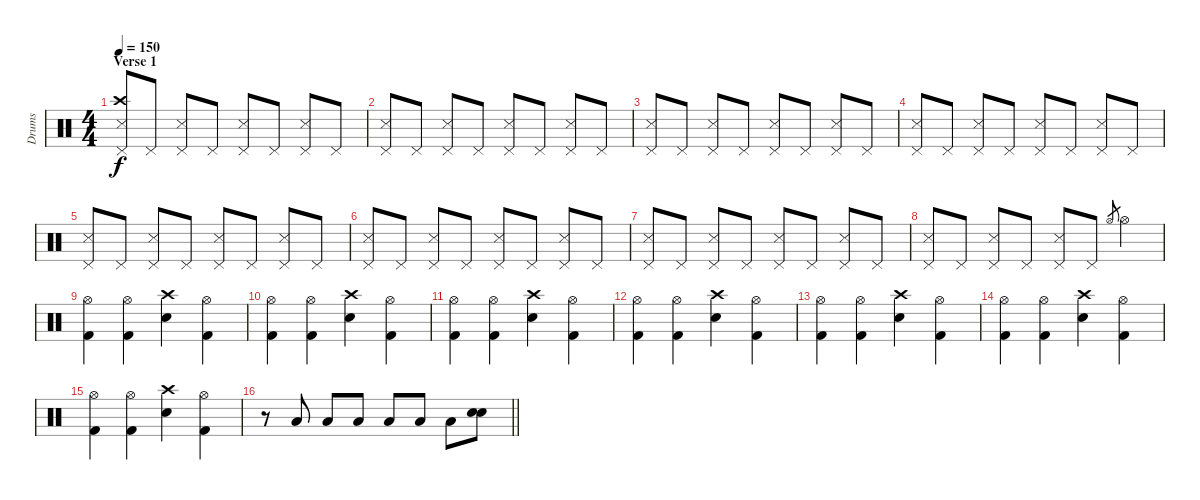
\track ("Drums" "Drums") {instrument percussion}
\staff {score}
\articulation defaults
\ts (4 4)
\section ("" "Verse 1")
\tempo 150
\clef neutral
\ks c
("Snare (side stick) 3" "Crash high (hit)" "Pedal Hi-Hat (hit)").8{dy f} "Pedal Hi-Hat (hit)".8 ("Snare (side stick) 3" "Pedal Hi-Hat (hit)").8 "Pedal Hi-Hat (hit)".8 ("Snare (side stick) 3" "Pedal Hi-Hat (hit)").8 "Pedal Hi-Hat (hit)".8 ("Snare (side stick) 3" "Pedal Hi-Hat (hit)").8 "Pedal Hi-Hat (hit)".8 |
("Snare (side stick) 3" "Pedal Hi-Hat (hit)").8 "Pedal Hi-Hat (hit)".8 ("Snare (side stick) 3" "Pedal Hi-Hat (hit)").8 "Pedal Hi-Hat (hit)".8 ("Snare (side stick) 3" "Pedal Hi-Hat (hit)").8 "Pedal Hi-Hat (hit)".8 ("Snare (side stick) 3" "Pedal Hi-Hat (hit)").8 "Pedal Hi-Hat (hit)".8 |
("Snare (side stick) 3" "Pedal Hi-Hat (hit)").8 "Pedal Hi-Hat (hit)".8 ("Snare (side stick) 3" "Pedal Hi-Hat (hit)").8 "Pedal Hi-Hat (hit)".8 ("Snare (side stick) 3" "Pedal Hi-Hat (hit)").8 "Pedal Hi-Hat (hit)".8 ("Snare (side stick) 3" "Pedal Hi-Hat (hit)").8 "Pedal Hi-Hat (hit)".8 |
("Snare (side stick) 3" "Pedal Hi-Hat (hit)").8 "Pedal Hi-Hat (hit)".8 ("Snare (side stick) 3" "Pedal Hi-Hat (hit)").8 "Pedal Hi-Hat (hit)".8 ("Snare (side stick) 3" "Pedal Hi-Hat (hit)").8 "Pedal Hi-Hat (hit)".8 ("Snare (side stick) 3" "Pedal Hi-Hat (hit)").8 "Pedal Hi-Hat (hit)".8 |
("Snare (side stick) 3" "Pedal Hi-Hat (hit)").8 "Pedal Hi-Hat (hit)".8 ("Snare (side stick) 3" "Pedal Hi-Hat (hit)").8 "Pedal Hi-Hat (hit)".8 ("Snare (side stick) 3" "Pedal Hi-Hat (hit)").8 "Pedal Hi-Hat (hit)".8 ("Snare (side stick) 3" "Pedal Hi-Hat (hit)").8 "Pedal Hi-Hat (hit)".8 |
("Snare (side stick) 3" "Pedal Hi-Hat (hit)").8 "Pedal Hi-Hat (hit)".8 ("Snare (side stick) 3" "Pedal Hi-Hat (hit)").8 "Pedal Hi-Hat (hit)".8 ("Snare (side stick) 3" "Pedal Hi-Hat (hit)").8 "Pedal Hi-Hat (hit)".8 ("Snare (side stick) 3" "Pedal Hi-Hat (hit)").8 "Pedal Hi-Hat (hit)".8 |
("Snare (side stick) 3" "Pedal Hi-Hat (hit)").8 "Pedal Hi-Hat (hit)".8 ("Snare (side stick) 3" "Pedal Hi-Hat (hit)").8 "Pedal Hi-Hat (hit)".8 ("Snare (side stick) 3" "Pedal Hi-Hat (hit)").8 "Pedal Hi-Hat (hit)".8 ("Snare (side stick) 3" "Pedal Hi-Hat (hit)").8 "Pedal Hi-Hat (hit)".8 |
("Snare (side stick) 3" "Pedal Hi-Hat (hit)").8 "Pedal Hi-Hat (hit)".8 ("Snare (side stick) 3" "Pedal Hi-Hat (hit)").8 "Pedal Hi-Hat (hit)".8 ("Snare (side stick) 3" "Pedal Hi-Hat (hit)").8 "Pedal Hi-Hat (hit)".8 "Hi-Hat (open)".8{gr} "Hi-Hat (open)".4 |
("Kick (hit) 2" "Hi-Hat (open)").4 ("Kick (hit) 2" "Hi-Hat (open)").4 ("Electric Snare (hit)" "Crash high (hit)").4 ("Kick (hit) 2" "Hi-Hat (open)").4 |
("Kick (hit) 2" "Hi-Hat (open)").4 ("Kick (hit) 2" "Hi-Hat (open)").4 ("Electric Snare (hit)" "Crash high (hit)").4 ("Kick (hit) 2" "Hi-Hat (open)").4 |
("Kick (hit) 2" "Hi-Hat (open)").4 ("Kick (hit) 2" "Hi-Hat (open)").4 ("Electric Snare (hit)" "Crash high (hit)").4 ("Kick (hit) 2" "Hi-Hat (open)").4 |
("Kick (hit) 2" "Hi-Hat (open)").4 ("Kick (hit) 2" "Hi-Hat (open)").4 ("Electric Snare (hit)" "Crash high (hit)").4 ("Kick (hit) 2" "Hi-Hat (open)").4 |
("Kick (hit) 2" "Hi-Hat (open)").4 ("Kick (hit) 2" "Hi-Hat (open)").4 ("Electric Snare (hit)" "Crash high (hit)").4 ("Kick (hit) 2" "Hi-Hat (open)").4 |
("Kick (hit) 2" "Hi-Hat (open)").4 ("Kick (hit) 2" "Hi-Hat (open)").4 ("Electric Snare (hit)" "Crash high (hit)").4 ("Kick (hit) 2" "Hi-Hat (open)").4 |
("Kick (hit) 2" "Hi-Hat (open)").4 ("Kick (hit) 2" "Hi-Hat (open)").4 ("Electric Snare (hit)" "Crash high (hit)").4 ("Kick (hit) 2" "Hi-Hat (open)").4 |
\barLineRight lightlight
r.8 "Low Floor Tom (hit)".8 "Low Floor Tom (hit)".8 "Low Floor Tom (hit)".8 "Low Floor Tom (hit)".8 "Low Floor Tom (hit)".8 "Low Floor Tom (hit)".8 ("Electric Snare (hit)" "Electric Snare (hit)").8
